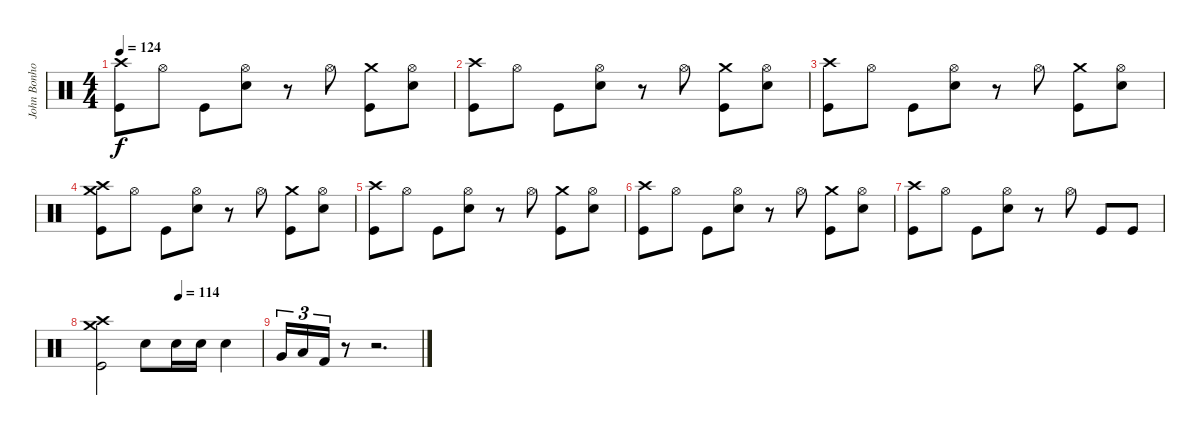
\track ("John Bonhom" "John Bonho") {instrument percussion}
\staff {score}
\articulation defaults
\ts (4 4)
\tempo 124
\clef neutral
\ks c
("Crash high (hit)" "Kick (hit)").8{dy f} "Hi-Hat (open)".8 "Kick (hit)".8 ("Hi-Hat (open)" "Electric Snare (hit)").8 r.8 "Hi-Hat (open)".8 ("Crash medium (hit)" "Kick (hit)").8 ("Hi-Hat (open)" "Electric Snare (hit)").8 |
("Crash high (hit)" "Kick (hit)").8 "Hi-Hat (open)".8 "Kick (hit)".8 ("Hi-Hat (open)" "Electric Snare (hit)").8 r.8 "Hi-Hat (open)".8 ("Crash medium (hit)" "Kick (hit)").8 ("Hi-Hat (open)" "Electric Snare (hit)").8 |
("Crash high (hit)" "Kick (hit)").8 "Hi-Hat (open)".8 "Kick (hit)".8 ("Hi-Hat (open)" "Electric Snare (hit)").8 r.8 "Hi-Hat (open)".8 ("Crash medium (hit)" "Kick (hit)").8 ("Hi-Hat (open)" "Electric Snare (hit)").8 |
("Crash high (hit)" "Crash medium (hit)" "Kick (hit)").8 "Hi-Hat (open)".8 "Kick (hit)".8 ("Hi-Hat (open)" "Electric Snare (hit)").8 r.8 "Hi-Hat (open)".8 ("Crash medium (hit)" "Kick (hit)").8 ("Hi-Hat (open)" "Electric Snare (hit)").8 |
("Crash high (hit)" "Kick (hit)").8 "Hi-Hat (open)".8 "Kick (hit)".8 ("Hi-Hat (open)" "Electric Snare (hit)").8 r.8 "Hi-Hat (open)".8 ("Crash medium (hit)" "Kick (hit)").8 ("Hi-Hat (open)" "Electric Snare (hit)").8 |
("Crash high (hit)" "Kick (hit)").8 "Hi-Hat (open)".8 "Kick (hit)".8 ("Hi-Hat (open)" "Electric Snare (hit)").8 r.8 "Hi-Hat (open)".8 ("Crash medium (hit)" "Kick (hit)").8 ("Hi-Hat (open)" "Electric Snare (hit)").8 |
("Crash high (hit)" "Kick (hit)").8 "Hi-Hat (open)".8 "Kick (hit)".8 ("Hi-Hat (open)" "Electric Snare (hit)").8 r.8 "Hi-Hat (open)".8 "Kick (hit)".8 "Kick (hit)".8 |
\tempo (114 0.5)
("Crash medium (hit)" "Crash high (hit)" "Kick (hit)").2 "Electric Snare (hit)".8 "Electric Snare (hit)".16 "Electric Snare (hit)".16 "Electric Snare (hit)".4 |
"Very Low Tom (hit)".16{tu (3 2)} "Low Floor Tom (hit)".16{tu (3 2)} "Kick (hit) 2".16{tu (3 2)} r.8 r.2{d}
